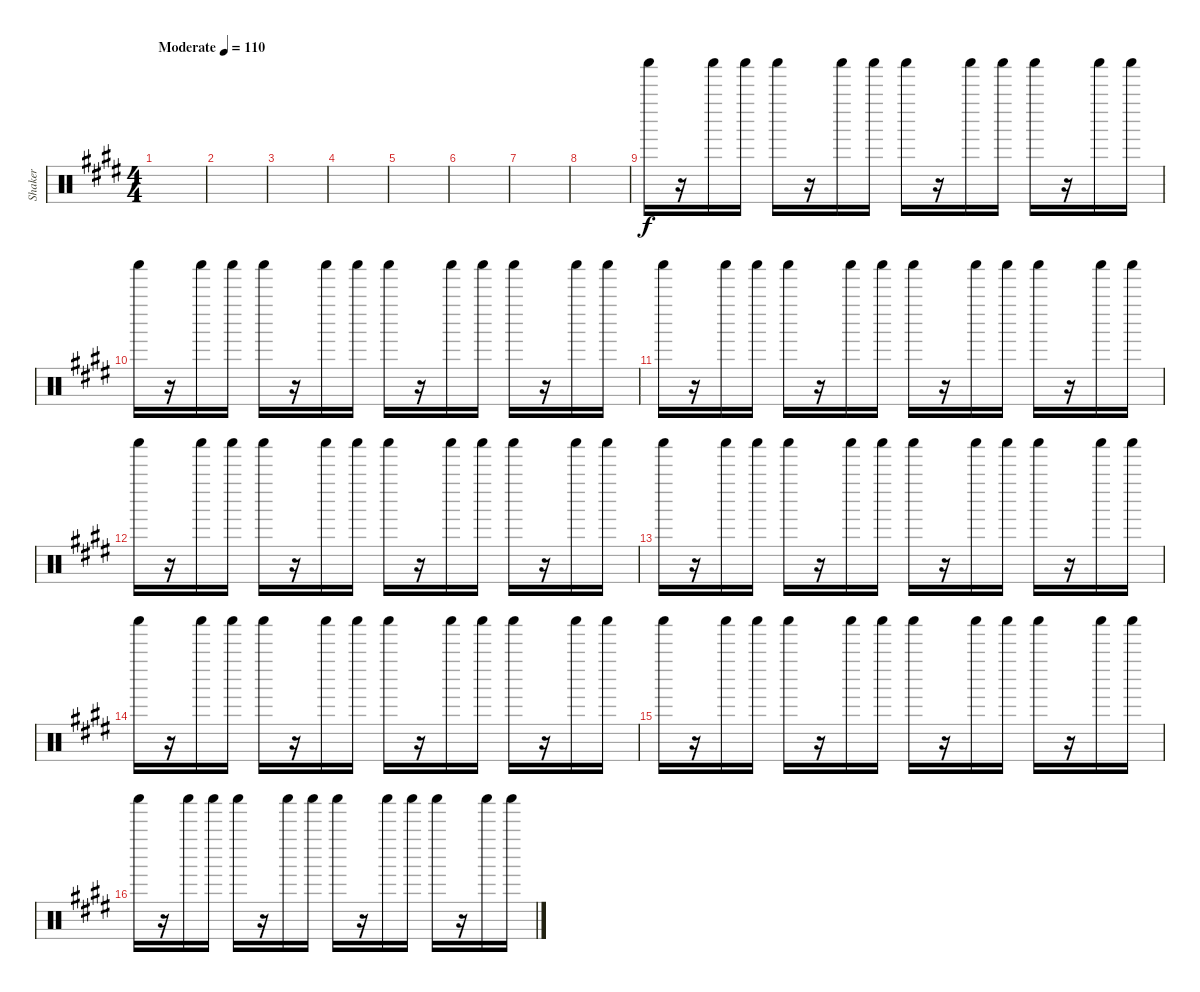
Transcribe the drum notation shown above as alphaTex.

\track ("Shaker" "Shaker") {instrument percussion}
\staff {score}
\articulation defaults
\ts (4 4)
\tempo (110 "Moderate")
\clef neutral
\ks e
|
|
|
|
|
|
|
|
"Shaker (hit)".16 r.16 "Shaker (hit)".16 "Shaker (hit)".16 "Shaker (hit)".16 r.16 "Shaker (hit)".16 "Shaker (hit)".16 "Shaker (hit)".16 r.16 "Shaker (hit)".16 "Shaker (hit)".16 "Shaker (hit)".16 r.16 "Shaker (hit)".16 "Shaker (hit)".16 |
"Shaker (hit)".16 r.16 "Shaker (hit)".16 "Shaker (hit)".16 "Shaker (hit)".16 r.16 "Shaker (hit)".16 "Shaker (hit)".16 "Shaker (hit)".16 r.16 "Shaker (hit)".16 "Shaker (hit)".16 "Shaker (hit)".16 r.16 "Shaker (hit)".16 "Shaker (hit)".16 |
"Shaker (hit)".16 r.16 "Shaker (hit)".16 "Shaker (hit)".16 "Shaker (hit)".16 r.16 "Shaker (hit)".16 "Shaker (hit)".16 "Shaker (hit)".16 r.16 "Shaker (hit)".16 "Shaker (hit)".16 "Shaker (hit)".16 r.16 "Shaker (hit)".16 "Shaker (hit)".16 |
"Shaker (hit)".16 r.16 "Shaker (hit)".16 "Shaker (hit)".16 "Shaker (hit)".16 r.16 "Shaker (hit)".16 "Shaker (hit)".16 "Shaker (hit)".16 r.16 "Shaker (hit)".16 "Shaker (hit)".16 "Shaker (hit)".16 r.16 "Shaker (hit)".16 "Shaker (hit)".16 |
"Shaker (hit)".16 r.16 "Shaker (hit)".16 "Shaker (hit)".16 "Shaker (hit)".16 r.16 "Shaker (hit)".16 "Shaker (hit)".16 "Shaker (hit)".16 r.16 "Shaker (hit)".16 "Shaker (hit)".16 "Shaker (hit)".16 r.16 "Shaker (hit)".16 "Shaker (hit)".16 |
"Shaker (hit)".16 r.16 "Shaker (hit)".16 "Shaker (hit)".16 "Shaker (hit)".16 r.16 "Shaker (hit)".16 "Shaker (hit)".16 "Shaker (hit)".16 r.16 "Shaker (hit)".16 "Shaker (hit)".16 "Shaker (hit)".16 r.16 "Shaker (hit)".16 "Shaker (hit)".16 |
"Shaker (hit)".16 r.16 "Shaker (hit)".16 "Shaker (hit)".16 "Shaker (hit)".16 r.16 "Shaker (hit)".16 "Shaker (hit)".16 "Shaker (hit)".16 r.16 "Shaker (hit)".16 "Shaker (hit)".16 "Shaker (hit)".16 r.16 "Shaker (hit)".16 "Shaker (hit)".16 |
"Shaker (hit)".16 r.16 "Shaker (hit)".16 "Shaker (hit)".16 "Shaker (hit)".16 r.16 "Shaker (hit)".16 "Shaker (hit)".16 "Shaker (hit)".16 r.16 "Shaker (hit)".16 "Shaker (hit)".16 "Shaker (hit)".16 r.16 "Shaker (hit)".16 "Shaker (hit)".16
